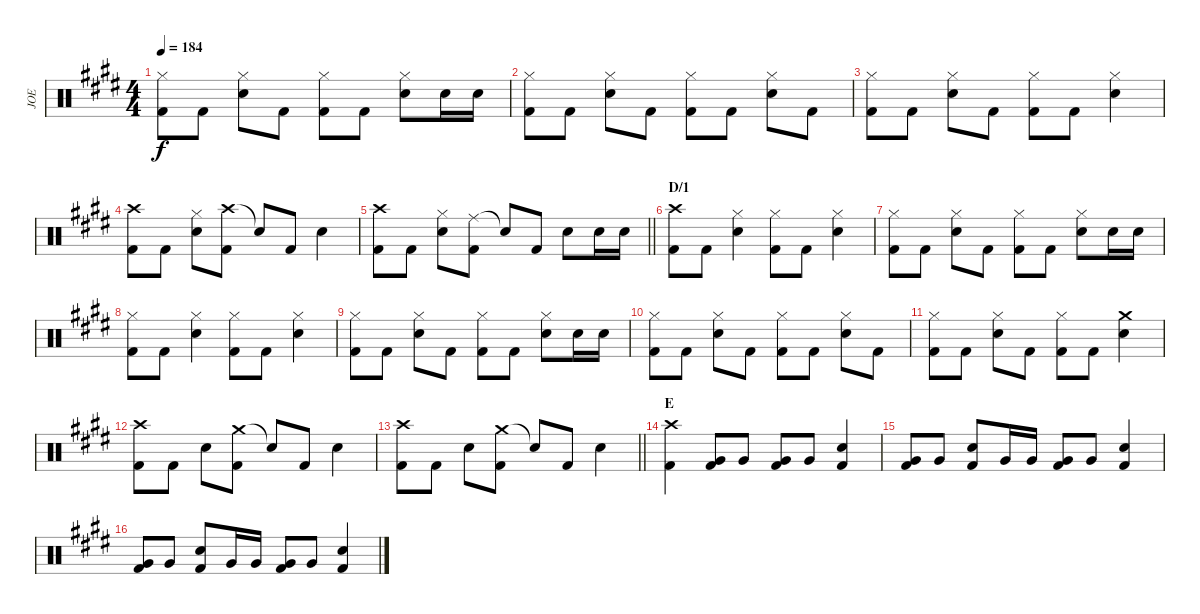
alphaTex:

\track ("JOE" "JOE") {instrument percussion}
\staff {score}
\articulation defaults
\ts (4 4)
\tempo 184
\clef neutral
\ks e
("Hi-Hat (closed)" "Kick (hit) 2").8{dy f} "Kick (hit) 2".8 ("Hi-Hat (closed)" "Snare (hit) 2").8 "Kick (hit) 2".8 ("Hi-Hat (closed)" "Kick (hit) 2").8 "Kick (hit) 2".8 ("Hi-Hat (closed)" "Snare (hit) 2").8 "Snare (hit) 2".16 "Snare (hit) 2".16 |
("Hi-Hat (closed)" "Kick (hit) 2").8 "Kick (hit) 2".8 ("Hi-Hat (closed)" "Snare (hit) 2").8 "Kick (hit) 2".8 ("Hi-Hat (closed)" "Kick (hit) 2").8 "Kick (hit) 2".8 ("Hi-Hat (closed)" "Snare (hit) 2").8 "Kick (hit) 2".8 |
("Hi-Hat (closed)" "Kick (hit) 2").8 "Kick (hit) 2".8 ("Hi-Hat (closed)" "Snare (hit) 2").8 "Kick (hit) 2".8 ("Hi-Hat (closed)" "Kick (hit) 2").8 "Kick (hit) 2".8 ("Hi-Hat (closed)" "Snare (hit) 2").4 |
("Crash high (hit)" "Kick (hit) 2").8 "Kick (hit) 2".8 ("Hi-Hat (closed)" "Snare (hit) 2").8 ("Crash high (hit)" "Kick (hit) 2").8 "Snare (hit)"{t}.8 "Kick (hit) 2".8 "Snare (hit) 2".4 |
\barLineRight lightlight
("Crash high (hit)" "Kick (hit) 2").8 "Kick (hit) 2".8 ("Hi-Hat (closed)" "Snare (hit) 2").8 ("Ride (middle)" "Kick (hit) 2").8 "Snare (hit)"{t}.8 "Kick (hit) 2".8 "Snare (hit) 2".8 "Snare (hit) 2".16 "Snare (hit) 2".16 |
\section ("" "D/1")
("Crash high (hit)" "Kick (hit) 2").8 "Kick (hit) 2".8 ("Hi-Hat (closed)" "Snare (hit) 2").4 ("Hi-Hat (closed)" "Kick (hit) 2").8 "Kick (hit) 2".8 ("Hi-Hat (closed)" "Snare (hit) 2").4 |
("Hi-Hat (closed)" "Kick (hit) 2").8 "Kick (hit) 2".8 ("Hi-Hat (closed)" "Snare (hit) 2").8 "Kick (hit) 2".8 ("Hi-Hat (closed)" "Kick (hit) 2").8 "Kick (hit) 2".8 ("Hi-Hat (closed)" "Snare (hit) 2").8 "Snare (hit) 2".16 "Snare (hit) 2".16 |
("Hi-Hat (closed)" "Kick (hit) 2").8 "Kick (hit) 2".8 ("Hi-Hat (closed)" "Snare (hit) 2").4 ("Hi-Hat (closed)" "Kick (hit) 2").8 "Kick (hit) 2".8 ("Hi-Hat (closed)" "Snare (hit) 2").4 |
("Hi-Hat (closed)" "Kick (hit) 2").8 "Kick (hit) 2".8 ("Hi-Hat (closed)" "Snare (hit) 2").8 "Kick (hit) 2".8 ("Hi-Hat (closed)" "Kick (hit) 2").8 "Kick (hit) 2".8 ("Hi-Hat (closed)" "Snare (hit) 2").8 "Snare (hit) 2".16 "Snare (hit) 2".16 |
("Hi-Hat (closed)" "Kick (hit) 2").8 "Kick (hit) 2".8 ("Hi-Hat (closed)" "Snare (hit) 2").8 "Kick (hit) 2".8 ("Hi-Hat (closed)" "Kick (hit) 2").8 "Kick (hit) 2".8 ("Hi-Hat (closed)" "Snare (hit) 2").8 "Kick (hit) 2".8 |
("Hi-Hat (closed)" "Kick (hit) 2").8 "Kick (hit) 2".8 ("Hi-Hat (closed)" "Snare (hit) 2").8 "Kick (hit) 2".8 ("Hi-Hat (closed)" "Kick (hit) 2").8 "Kick (hit) 2".8 ("Crash medium (hit)" "Snare (hit) 2").4 |
("Crash high (hit)" "Kick (hit) 2").8 "Kick (hit) 2".8 "Snare (hit) 2".8 ("Crash medium (hit)" "Kick (hit) 2").8 "Snare (hit)"{t}.8 "Kick (hit) 2".8 "Snare (hit) 2".4 |
\barLineRight lightlight
("Crash high (hit)" "Kick (hit) 2").8 "Kick (hit) 2".8 "Snare (hit) 2".8 ("Crash medium (hit)" "Kick (hit) 2").8 "Snare (hit)"{t}.8 "Kick (hit) 2".8 "Snare (hit) 2".4 |
\section ("" "E")
("Crash high (hit)" "Kick (hit) 2").4 ("Kick (hit) 2" "Very Low Tom (hit)").8 "Very Low Tom (hit)".8 ("Kick (hit) 2" "Very Low Tom (hit)").8 "Very Low Tom (hit)".8 ("Snare (hit) 2" "Kick (hit) 2").4 |
("Kick (hit) 2" "Very Low Tom (hit)").8 "Very Low Tom (hit)".8 ("Kick (hit) 2" "Snare (hit) 2").8 "Very Low Tom (hit)".16 "Very Low Tom (hit)".16 ("Very Low Tom (hit)" "Kick (hit) 2").8 "Very Low Tom (hit)".8 ("Kick (hit) 2" "Snare (hit) 2").4 |
("Kick (hit) 2" "Very Low Tom (hit)").8 "Very Low Tom (hit)".8 ("Kick (hit) 2" "Snare (hit) 2").8 "Very Low Tom (hit)".16 "Very Low Tom (hit)".16 ("Very Low Tom (hit)" "Kick (hit) 2").8 "Very Low Tom (hit)".8 ("Kick (hit) 2" "Snare (hit) 2").4
